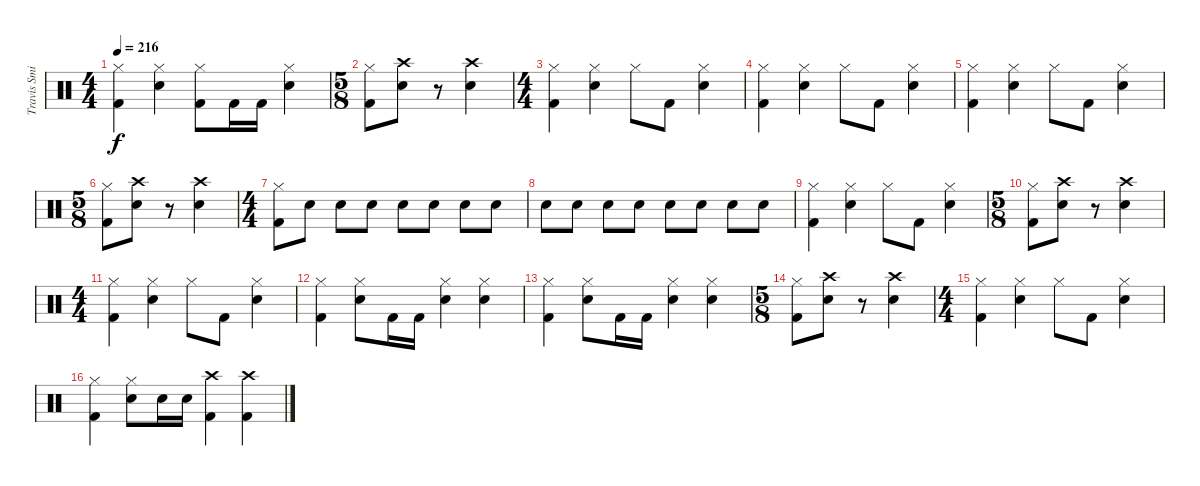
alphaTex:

\track ("Travis Smith (Drums)" "Travis Smi") {instrument percussion}
\staff {score}
\articulation defaults
\ts (4 4)
\tempo 216
\clef neutral
\ks c
("Hi-Hat (closed)" "Kick (hit) 2").4{dy f} ("Hi-Hat (closed)" "Electric Snare (hit)").4 ("Hi-Hat (closed)" "Kick (hit) 2").8 "Kick (hit) 2".16 "Kick (hit) 2".16 ("Hi-Hat (closed)" "Electric Snare (hit)").4 |
\ts (5 8)
("Hi-Hat (closed)" "Kick (hit) 2").8 ("Crash high (hit)" "Electric Snare (hit)").8 r.8 ("Crash high (hit)" "Electric Snare (hit)").4 |
\ts (4 4)
("Hi-Hat (closed)" "Kick (hit) 2").4 ("Hi-Hat (closed)" "Electric Snare (hit)").4 "Hi-Hat (closed)".8 "Kick (hit) 2".8 ("Hi-Hat (closed)" "Electric Snare (hit)").4 |
("Hi-Hat (closed)" "Kick (hit) 2").4 ("Hi-Hat (closed)" "Electric Snare (hit)").4 "Hi-Hat (closed)".8 "Kick (hit) 2".8 ("Hi-Hat (closed)" "Electric Snare (hit)").4 |
("Hi-Hat (closed)" "Kick (hit) 2").4 ("Hi-Hat (closed)" "Electric Snare (hit)").4 "Hi-Hat (closed)".8 "Kick (hit) 2".8 ("Hi-Hat (closed)" "Electric Snare (hit)").4 |
\ts (5 8)
("Hi-Hat (closed)" "Kick (hit) 2").8 ("Crash high (hit)" "Electric Snare (hit)").8 r.8 ("Crash high (hit)" "Electric Snare (hit)").4 |
\ts (4 4)
("Hi-Hat (closed)" "Kick (hit) 2").8 "Electric Snare (hit)".8 "Electric Snare (hit)".8 "Electric Snare (hit)".8 "Electric Snare (hit)".8 "Electric Snare (hit)".8 "Electric Snare (hit)".8 "Electric Snare (hit)".8 |
"Electric Snare (hit)".8 "Electric Snare (hit)".8 "Electric Snare (hit)".8 "Electric Snare (hit)".8 "Electric Snare (hit)".8 "Electric Snare (hit)".8 "Electric Snare (hit)".8 "Electric Snare (hit)".8 |
("Hi-Hat (closed)" "Kick (hit) 2").4 ("Hi-Hat (closed)" "Electric Snare (hit)").4 "Hi-Hat (closed)".8 "Kick (hit) 2".8 ("Hi-Hat (closed)" "Electric Snare (hit)").4 |
\ts (5 8)
("Hi-Hat (closed)" "Kick (hit) 2").8 ("Crash high (hit)" "Electric Snare (hit)").8 r.8 ("Crash high (hit)" "Electric Snare (hit)").4 |
\ts (4 4)
("Hi-Hat (closed)" "Kick (hit) 2").4 ("Hi-Hat (closed)" "Electric Snare (hit)").4 "Hi-Hat (closed)".8 "Kick (hit) 2".8 ("Hi-Hat (closed)" "Electric Snare (hit)").4 |
("Hi-Hat (closed)" "Kick (hit) 2").4 ("Hi-Hat (closed)" "Electric Snare (hit)").8 "Kick (hit) 2".16 "Kick (hit) 2".16 ("Hi-Hat (closed)" "Electric Snare (hit)").4 ("Hi-Hat (closed)" "Electric Snare (hit)").4 |
("Hi-Hat (closed)" "Kick (hit) 2").4 ("Hi-Hat (closed)" "Electric Snare (hit)").8 "Kick (hit) 2".16 "Kick (hit) 2".16 ("Hi-Hat (closed)" "Electric Snare (hit)").4 ("Hi-Hat (closed)" "Electric Snare (hit)").4 |
\ts (5 8)
("Hi-Hat (closed)" "Kick (hit) 2").8 ("Crash high (hit)" "Electric Snare (hit)").8 r.8 ("Crash high (hit)" "Electric Snare (hit)").4 |
\ts (4 4)
("Hi-Hat (closed)" "Kick (hit) 2").4 ("Hi-Hat (closed)" "Electric Snare (hit)").4 "Hi-Hat (closed)".8 "Kick (hit) 2".8 ("Hi-Hat (closed)" "Electric Snare (hit)").4 |
("Hi-Hat (closed)" "Kick (hit) 2").4 ("Hi-Hat (closed)" "Electric Snare (hit)").8 "Electric Snare (hit)".16 "Electric Snare (hit)".16 ("Crash high (hit)" "Kick (hit) 2").4 ("Crash high (hit)" "Kick (hit) 2").4
